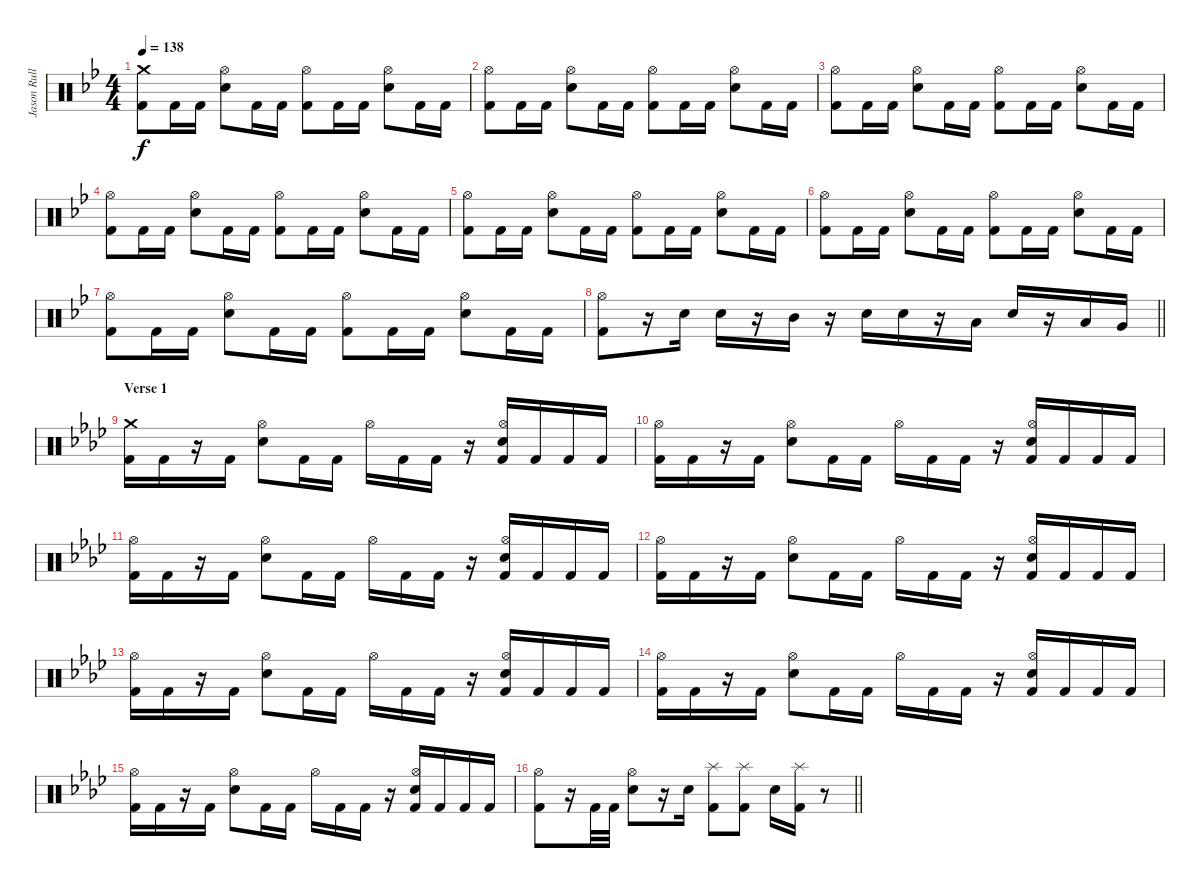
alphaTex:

\track ("Jason Rullo (drums)" "Jason Rull") {instrument percussion}
\staff {score}
\articulation defaults
\ts (4 4)
\tempo 138
\clef neutral
\ks gminor
("Crash medium (hit)" "Kick (hit) 2").8{dy f} "Kick (hit) 2".16 "Kick (hit) 2".16 ("Hi-Hat (open)" "Electric Snare (hit)").8 "Kick (hit) 2".16 "Kick (hit) 2".16 ("Hi-Hat (open)" "Kick (hit) 2").8 "Kick (hit) 2".16 "Kick (hit) 2".16 ("Hi-Hat (open)" "Electric Snare (hit)").8 "Kick (hit) 2".16 "Kick (hit) 2".16 |
("Hi-Hat (open)" "Kick (hit) 2").8 "Kick (hit) 2".16 "Kick (hit) 2".16 ("Hi-Hat (open)" "Electric Snare (hit)").8 "Kick (hit) 2".16 "Kick (hit) 2".16 ("Hi-Hat (open)" "Kick (hit) 2").8 "Kick (hit) 2".16 "Kick (hit) 2".16 ("Hi-Hat (open)" "Electric Snare (hit)").8 "Kick (hit) 2".16 "Kick (hit) 2".16 |
("Hi-Hat (open)" "Kick (hit) 2").8 "Kick (hit) 2".16 "Kick (hit) 2".16 ("Hi-Hat (open)" "Electric Snare (hit)").8 "Kick (hit) 2".16 "Kick (hit) 2".16 ("Hi-Hat (open)" "Kick (hit) 2").8 "Kick (hit) 2".16 "Kick (hit) 2".16 ("Hi-Hat (open)" "Electric Snare (hit)").8 "Kick (hit) 2".16 "Kick (hit) 2".16 |
("Hi-Hat (open)" "Kick (hit) 2").8 "Kick (hit) 2".16 "Kick (hit) 2".16 ("Hi-Hat (open)" "Electric Snare (hit)").8 "Kick (hit) 2".16 "Kick (hit) 2".16 ("Hi-Hat (open)" "Kick (hit) 2").8 "Kick (hit) 2".16 "Kick (hit) 2".16 ("Hi-Hat (open)" "Electric Snare (hit)").8 "Kick (hit) 2".16 "Kick (hit) 2".16 |
("Hi-Hat (open)" "Kick (hit) 2").8 "Kick (hit) 2".16 "Kick (hit) 2".16 ("Hi-Hat (open)" "Electric Snare (hit)").8 "Kick (hit) 2".16 "Kick (hit) 2".16 ("Hi-Hat (open)" "Kick (hit) 2").8 "Kick (hit) 2".16 "Kick (hit) 2".16 ("Hi-Hat (open)" "Electric Snare (hit)").8 "Kick (hit) 2".16 "Kick (hit) 2".16 |
("Hi-Hat (open)" "Kick (hit) 2").8 "Kick (hit) 2".16 "Kick (hit) 2".16 ("Hi-Hat (open)" "Electric Snare (hit)").8 "Kick (hit) 2".16 "Kick (hit) 2".16 ("Hi-Hat (open)" "Kick (hit) 2").8 "Kick (hit) 2".16 "Kick (hit) 2".16 ("Hi-Hat (open)" "Electric Snare (hit)").8 "Kick (hit) 2".16 "Kick (hit) 2".16 |
("Hi-Hat (open)" "Kick (hit) 2").8 "Kick (hit) 2".16 "Kick (hit) 2".16 ("Hi-Hat (open)" "Electric Snare (hit)").8 "Kick (hit) 2".16 "Kick (hit) 2".16 ("Hi-Hat (open)" "Kick (hit) 2").8 "Kick (hit) 2".16 "Kick (hit) 2".16 ("Hi-Hat (open)" "Electric Snare (hit)").8 "Kick (hit) 2".16 "Kick (hit) 2".16 |
\barLineRight lightlight
("Hi-Hat (open)" "Kick (hit) 2").8 r.16 "Electric Snare (hit)".16 "Electric Snare (hit)".16 r.16 "Mid Tom (hit)".16 r.16 "Electric Snare (hit)".16 "Electric Snare (hit)".16 r.16 "Low Tom (hit)".16 "Electric Snare (hit)".16 r.16 "Low Tom (hit)".16 "Very Low Tom (hit)".16 |
\section ("" "Verse 1")
\ks ab
("Crash medium (hit)" "Kick (hit) 2").16{volume 15 balance 8} "Kick (hit) 2".16 r.16 "Kick (hit) 2".16 ("Hi-Hat (open)" "Electric Snare (hit)").8 "Kick (hit) 2".16 "Kick (hit) 2".16 "Hi-Hat (open)".16 "Kick (hit) 2".16 "Kick (hit) 2".16 r.16 ("Hi-Hat (open)" "Kick (hit) 2" "Electric Snare (hit)").16 "Kick (hit) 2".16 "Kick (hit) 2".16 "Kick (hit) 2".16 |
("Hi-Hat (open)" "Kick (hit) 2").16 "Kick (hit) 2".16 r.16 "Kick (hit) 2".16 ("Hi-Hat (open)" "Electric Snare (hit)").8 "Kick (hit) 2".16 "Kick (hit) 2".16 "Hi-Hat (open)".16 "Kick (hit) 2".16 "Kick (hit) 2".16 r.16 ("Hi-Hat (open)" "Kick (hit) 2" "Electric Snare (hit)").16 "Kick (hit) 2".16 "Kick (hit) 2".16 "Kick (hit) 2".16 |
("Hi-Hat (open)" "Kick (hit) 2").16 "Kick (hit) 2".16 r.16 "Kick (hit) 2".16 ("Hi-Hat (open)" "Electric Snare (hit)").8 "Kick (hit) 2".16 "Kick (hit) 2".16 "Hi-Hat (open)".16 "Kick (hit) 2".16 "Kick (hit) 2".16 r.16 ("Hi-Hat (open)" "Kick (hit) 2" "Electric Snare (hit)").16 "Kick (hit) 2".16 "Kick (hit) 2".16 "Kick (hit) 2".16 |
("Hi-Hat (open)" "Kick (hit) 2").16 "Kick (hit) 2".16 r.16 "Kick (hit) 2".16 ("Hi-Hat (open)" "Electric Snare (hit)").8 "Kick (hit) 2".16 "Kick (hit) 2".16 "Hi-Hat (open)".16 "Kick (hit) 2".16 "Kick (hit) 2".16 r.16 ("Hi-Hat (open)" "Kick (hit) 2" "Electric Snare (hit)").16 "Kick (hit) 2".16 "Kick (hit) 2".16 "Kick (hit) 2".16 |
("Hi-Hat (open)" "Kick (hit) 2").16 "Kick (hit) 2".16 r.16 "Kick (hit) 2".16 ("Hi-Hat (open)" "Electric Snare (hit)").8 "Kick (hit) 2".16 "Kick (hit) 2".16 "Hi-Hat (open)".16 "Kick (hit) 2".16 "Kick (hit) 2".16 r.16 ("Hi-Hat (open)" "Kick (hit) 2" "Electric Snare (hit)").16 "Kick (hit) 2".16 "Kick (hit) 2".16 "Kick (hit) 2".16 |
("Hi-Hat (open)" "Kick (hit) 2").16 "Kick (hit) 2".16 r.16 "Kick (hit) 2".16 ("Hi-Hat (open)" "Electric Snare (hit)").8 "Kick (hit) 2".16 "Kick (hit) 2".16 "Hi-Hat (open)".16 "Kick (hit) 2".16 "Kick (hit) 2".16 r.16 ("Hi-Hat (open)" "Kick (hit) 2" "Electric Snare (hit)").16 "Kick (hit) 2".16 "Kick (hit) 2".16 "Kick (hit) 2".16 |
("Hi-Hat (open)" "Kick (hit) 2").16 "Kick (hit) 2".16 r.16 "Kick (hit) 2".16 ("Hi-Hat (open)" "Electric Snare (hit)").8 "Kick (hit) 2".16 "Kick (hit) 2".16 "Hi-Hat (open)".16 "Kick (hit) 2".16 "Kick (hit) 2".16 r.16 ("Hi-Hat (open)" "Kick (hit) 2" "Electric Snare (hit)").16 "Kick (hit) 2".16 "Kick (hit) 2".16 "Kick (hit) 2".16 |
\barLineRight lightlight
("Hi-Hat (open)" "Kick (hit) 2").8 r.16 "Kick (hit) 2".32 "Kick (hit) 2".32 ("Hi-Hat (open)" "Electric Snare (hit)").8 r.16 "Electric Snare (hit)".16 ("Splash (hit)" "Kick (hit) 2").8 ("Splash (hit)" "Kick (hit) 2").8 "Electric Snare (hit)".16 ("Splash (hit)" "Kick (hit) 2").16 r.8
